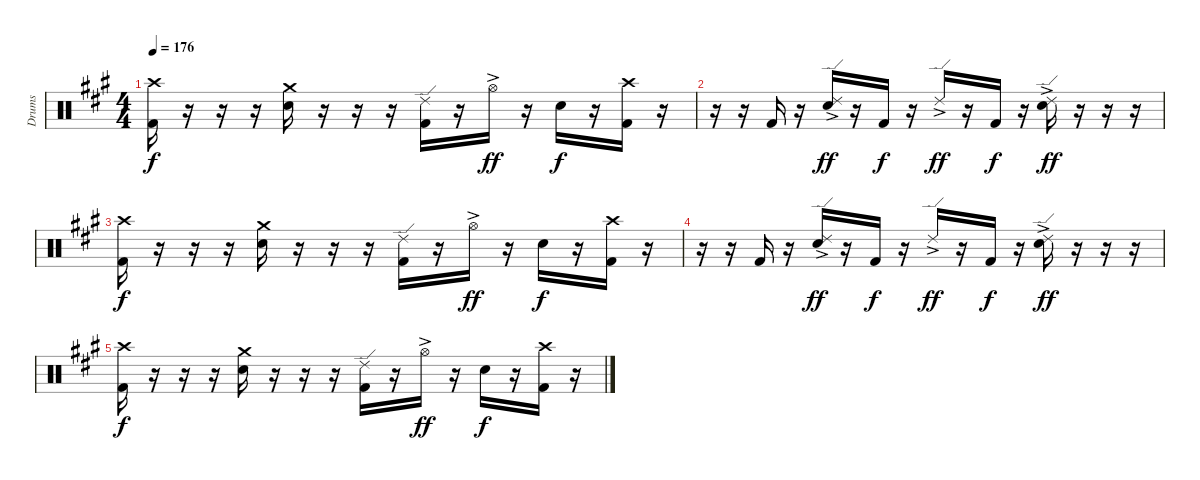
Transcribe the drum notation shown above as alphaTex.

\track ("Drums" "Drums") {instrument percussion}
\staff {score}
\articulation defaults
\ts (4 4)
\tempo 176
\clef neutral
\ks a
("Crash high (hit)" "Kick (hit) 2").16{dy f} r.16 r.16 r.16 ("Crash medium (hit)" "Electric Snare (hit)").16 r.16 r.16 r.16 ("Ride (edge) 2" "Kick (hit) 2").16 r.16 "Hi-Hat (open)"{ac}.16{dy ff} r.16 "Electric Snare (hit)".16{dy f} r.16 ("Crash high (hit)" "Kick (hit) 2").16 r.16 |
r.16 r.16 "Kick (hit) 2".16 r.16 ("Ride (edge) 2"{ac} "Electric Snare (hit)").16{dy ff} r.16 "Kick (hit) 2".16{dy f} r.16 "Ride (edge) 2"{ac}.16{dy ff} r.16 "Kick (hit) 2".16{dy f} r.16 ("Ride (edge) 2"{ac} "Electric Snare (hit)").16{dy ff} r.16 r.16 r.16 |
("Crash high (hit)" "Kick (hit) 2").16{dy f} r.16 r.16 r.16 ("Crash medium (hit)" "Electric Snare (hit)").16 r.16 r.16 r.16 ("Ride (edge) 2" "Kick (hit) 2").16 r.16 "Hi-Hat (open)"{ac}.16{dy ff} r.16 "Electric Snare (hit)".16{dy f} r.16 ("Crash high (hit)" "Kick (hit) 2").16 r.16 |
r.16 r.16 "Kick (hit) 2".16 r.16 ("Ride (edge) 2"{ac} "Electric Snare (hit)").16{dy ff} r.16 "Kick (hit) 2".16{dy f} r.16 "Ride (edge) 2"{ac}.16{dy ff} r.16 "Kick (hit) 2".16{dy f} r.16 ("Ride (edge) 2"{ac} "Electric Snare (hit)").16{dy ff} r.16 r.16 r.16 |
("Crash high (hit)" "Kick (hit) 2").16{dy f} r.16 r.16 r.16 ("Crash medium (hit)" "Electric Snare (hit)").16 r.16 r.16 r.16 ("Ride (edge) 2" "Kick (hit) 2").16 r.16 "Hi-Hat (open)"{ac}.16{dy ff} r.16 "Electric Snare (hit)".16{dy f} r.16 ("Crash high (hit)" "Kick (hit) 2").16 r.16
